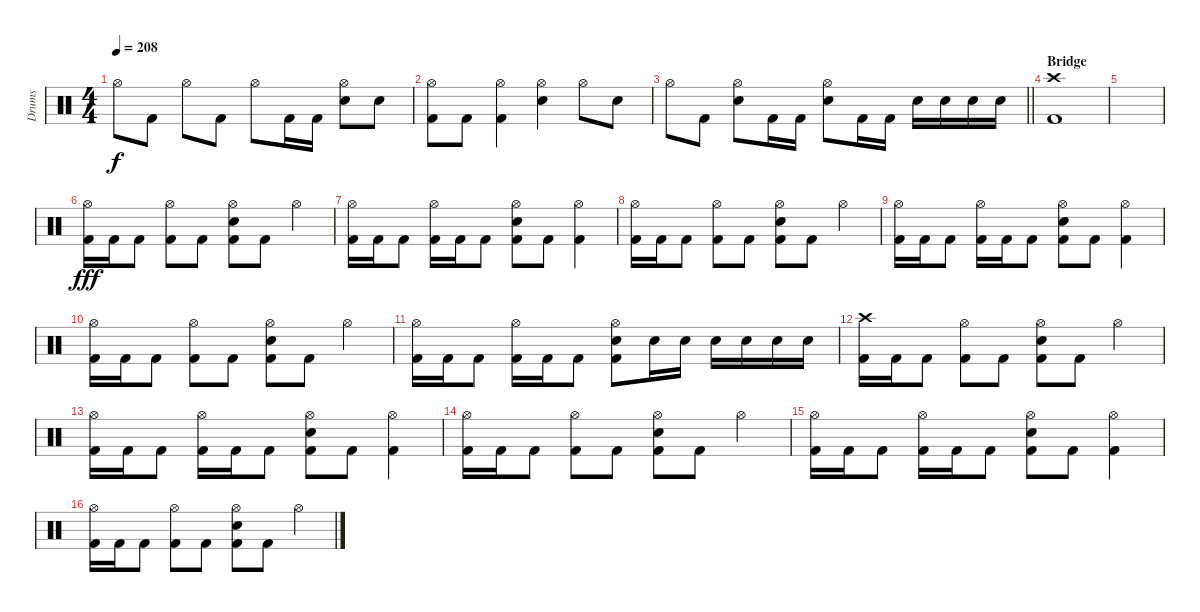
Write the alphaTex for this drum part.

\track ("Drums" "Drums") {instrument percussion}
\staff {score}
\articulation defaults
\ts (4 4)
\tempo 208
\clef neutral
\ks c "Hi-Hat (open)".8{dy f} "Kick (hit) 2".8 "Hi-Hat (open)".8 "Kick (hit) 2".8 "Hi-Hat (open)".8 "Kick (hit) 2".16 "Kick (hit) 2".16
("Hi-Hat (open)" "Snare (hit) 2").8 "Snare (hit) 2".8 |
("Hi-Hat (open)" "Kick (hit) 2").8 "Kick (hit) 2".8 ("Hi-Hat (open)" "Kick (hit) 2").4 ("Hi-Hat (open)" "Snare (hit) 2").4 "Hi-Hat (open)".8 "Snare (hit) 2".8 |
\barLineRight lightlight "Hi-Hat (open)".8 "Kick (hit) 2".8
("Hi-Hat (open)" "Snare (hit) 2").8 "Kick (hit) 2".16 "Kick (hit) 2".16 ("Hi-Hat (open)" "Snare (hit) 2").8 "Kick (hit) 2".16 "Kick (hit) 2".16 "Snare (hit) 2".16 "Snare (hit) 2".16 "Snare (hit) 2".16 "Snare (hit) 2".16 |
\section ("" "Bridge")
("Crash high (hit)" "Kick (hit) 2").1 |
|
("Hi-Hat (open)" "Kick (hit) 2").16{dy fff} "Kick (hit) 2".16 "Kick (hit) 2".8 ("Hi-Hat (open)" "Kick (hit) 2").8 "Kick (hit) 2".8 ("Hi-Hat (open)" "Snare (hit) 2" "Kick (hit) 2").8 "Kick (hit) 2".8 "Hi-Hat (open)".4 |
("Hi-Hat (open)" "Kick (hit) 2").16 "Kick (hit) 2".16 "Kick (hit) 2".8 ("Hi-Hat (open)" "Kick (hit) 2").16 "Kick (hit) 2".16 "Kick (hit) 2".8 ("Hi-Hat (open)" "Snare (hit) 2" "Kick (hit) 2").8 "Kick (hit) 2".8 ("Hi-Hat (open)" "Kick (hit) 2").4 |
("Hi-Hat (open)" "Kick (hit) 2").16 "Kick (hit) 2".16 "Kick (hit) 2".8 ("Hi-Hat (open)" "Kick (hit) 2").8 "Kick (hit) 2".8 ("Hi-Hat (open)" "Snare (hit) 2" "Kick (hit) 2").8 "Kick (hit) 2".8 "Hi-Hat (open)".4 |
("Hi-Hat (open)" "Kick (hit) 2").16 "Kick (hit) 2".16 "Kick (hit) 2".8 ("Hi-Hat (open)" "Kick (hit) 2").16 "Kick (hit) 2".16 "Kick (hit) 2".8 ("Hi-Hat (open)" "Snare (hit) 2" "Kick (hit) 2").8 "Kick (hit) 2".8 ("Hi-Hat (open)" "Kick (hit) 2").4 |
("Hi-Hat (open)" "Kick (hit) 2").16 "Kick (hit) 2".16 "Kick (hit) 2".8 ("Hi-Hat (open)" "Kick (hit) 2").8 "Kick (hit) 2".8 ("Hi-Hat (open)" "Snare (hit) 2" "Kick (hit) 2").8 "Kick (hit) 2".8 "Hi-Hat (open)".4 |
("Hi-Hat (open)" "Kick (hit) 2").16 "Kick (hit) 2".16 "Kick (hit) 2".8 ("Hi-Hat (open)" "Kick (hit) 2").16 "Kick (hit) 2".16 "Kick (hit) 2".8 ("Hi-Hat (open)" "Snare (hit) 2" "Kick (hit) 2").8 "Snare (hit) 2".16 "Snare (hit) 2".16 "Snare (hit) 2".16 "Snare (hit) 2".16 "Snare (hit) 2".16 "Snare (hit) 2".16 |
("Crash high (hit)" "Kick (hit) 2").16 "Kick (hit) 2".16 "Kick (hit) 2".8 ("Hi-Hat (open)" "Kick (hit) 2").8 "Kick (hit) 2".8 ("Hi-Hat (open)" "Snare (hit) 2" "Kick (hit) 2").8 "Kick (hit) 2".8 "Hi-Hat (open)".4 |
("Hi-Hat (open)" "Kick (hit) 2").16 "Kick (hit) 2".16 "Kick (hit) 2".8 ("Hi-Hat (open)" "Kick (hit) 2").16 "Kick (hit) 2".16 "Kick (hit) 2".8 ("Hi-Hat (open)" "Snare (hit) 2" "Kick (hit) 2").8 "Kick (hit) 2".8 ("Hi-Hat (open)" "Kick (hit) 2").4 |
("Hi-Hat (open)" "Kick (hit) 2").16 "Kick (hit) 2".16 "Kick (hit) 2".8 ("Hi-Hat (open)" "Kick (hit) 2").8 "Kick (hit) 2".8 ("Hi-Hat (open)" "Snare (hit) 2" "Kick (hit) 2").8 "Kick (hit) 2".8 "Hi-Hat (open)".4 |
("Hi-Hat (open)" "Kick (hit) 2").16 "Kick (hit) 2".16 "Kick (hit) 2".8 ("Hi-Hat (open)" "Kick (hit) 2").16 "Kick (hit) 2".16 "Kick (hit) 2".8 ("Hi-Hat (open)" "Snare (hit) 2" "Kick (hit) 2").8 "Kick (hit) 2".8 ("Hi-Hat (open)" "Kick (hit) 2").4 |
("Hi-Hat (open)" "Kick (hit) 2").16 "Kick (hit) 2".16 "Kick (hit) 2".8 ("Hi-Hat (open)" "Kick (hit) 2").8 "Kick (hit) 2".8 ("Hi-Hat (open)" "Snare (hit) 2" "Kick (hit) 2").8 "Kick (hit) 2".8 "Hi-Hat (open)".4
